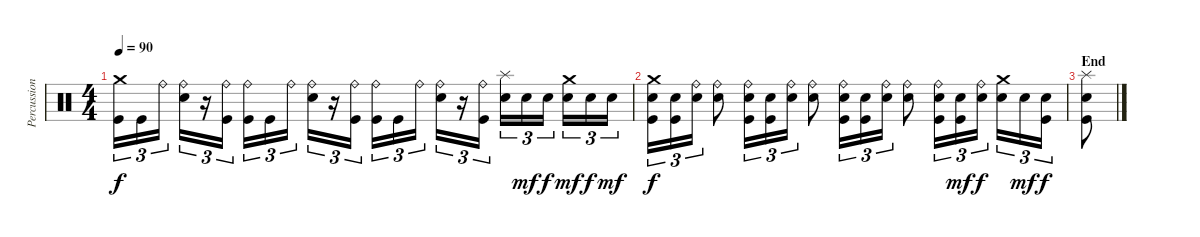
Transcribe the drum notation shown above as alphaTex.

\track ("Percussioni" "Percussion") {instrument percussion}
\staff {score}
\articulation defaults
\ts (4 4)
\tempo 90
\clef neutral
\ks c
("Crash medium (hit)" "Kick (hit)").16{tu (3 2) dy f} "Kick (hit)".16{tu (3 2)} "Ride (bell)".16{tu (3 2)} ("Ride (bell)" "Snare (hit) 2").16{tu (3 2)} r.16{tu (3 2)} ("Ride (bell)" "Kick (hit)").16{tu (3 2)} ("Ride (bell)" "Kick (hit)").16{tu (3 2)} "Kick (hit)".16{tu (3 2)} "Ride (bell)".16{tu (3 2)} ("Ride (bell)" "Snare (hit) 2").16{tu (3 2)} r.16{tu (3 2)} ("Ride (bell)" "Kick (hit)").16{tu (3 2)} ("Ride (bell)" "Kick (hit)").16{tu (3 2)} "Kick (hit)".16{tu (3 2)} "Ride (bell)".16{tu (3 2)} ("Ride (bell)" "Snare (hit) 2").16{tu (3 2)} r.16{tu (3 2)} ("Ride (bell)" "Kick (hit)").16{tu (3 2)} ("Splash (hit)" "Snare (hit) 2").16{tu (3 2)} "Snare (hit) 2".16{tu (3 2) dy mf} "Snare (hit) 2".16{tu (3 2) dy f} ("Crash medium (hit)" "Snare (hit) 2").16{tu (3 2) dy mf} "Snare (hit) 2".16{tu (3 2) dy f} "Snare (hit) 2".16{tu (3 2) dy mf} |
("Crash medium (hit)" "Snare (hit) 2" "Kick (hit)").16{tu (3 2) dy f} ("Snare (hit) 2" "Kick (hit)").16{tu (3 2)} ("Ride (bell)" "Snare (hit) 2").16{tu (3 2)} ("Ride (bell)" "Snare (hit) 2").8 ("Ride (bell)" "Snare (hit) 2" "Kick (hit)").16{tu (3 2)} ("Snare (hit) 2" "Kick (hit)").16{tu (3 2)} ("Ride (bell)" "Snare (hit) 2").16{tu (3 2)} ("Ride (bell)" "Snare (hit) 2").8 ("Ride (bell)" "Snare (hit) 2" "Kick (hit)").16{tu (3 2)} ("Snare (hit) 2" "Kick (hit)").16{tu (3 2)} ("Ride (bell)" "Snare (hit) 2").16{tu (3 2)} ("Ride (bell)" "Snare (hit) 2").8 ("Ride (bell)" "Snare (hit) 2" "Kick (hit)").16{tu (3 2)} ("Snare (hit) 2" "Kick (hit)").16{tu (3 2) dy mf} ("Ride (bell)" "Snare (hit) 2").16{tu (3 2) dy f} ("Crash medium (hit)" "Snare (hit) 2").16{tu (3 2)} "Snare (hit) 2".16{tu (3 2) dy mf} ("Snare (hit) 2" "Kick (hit)").16{tu (3 2) dy f} |
\section ("" "End")
("Splash (hit)" "Snare (hit) 2" "Kick (hit)").8
